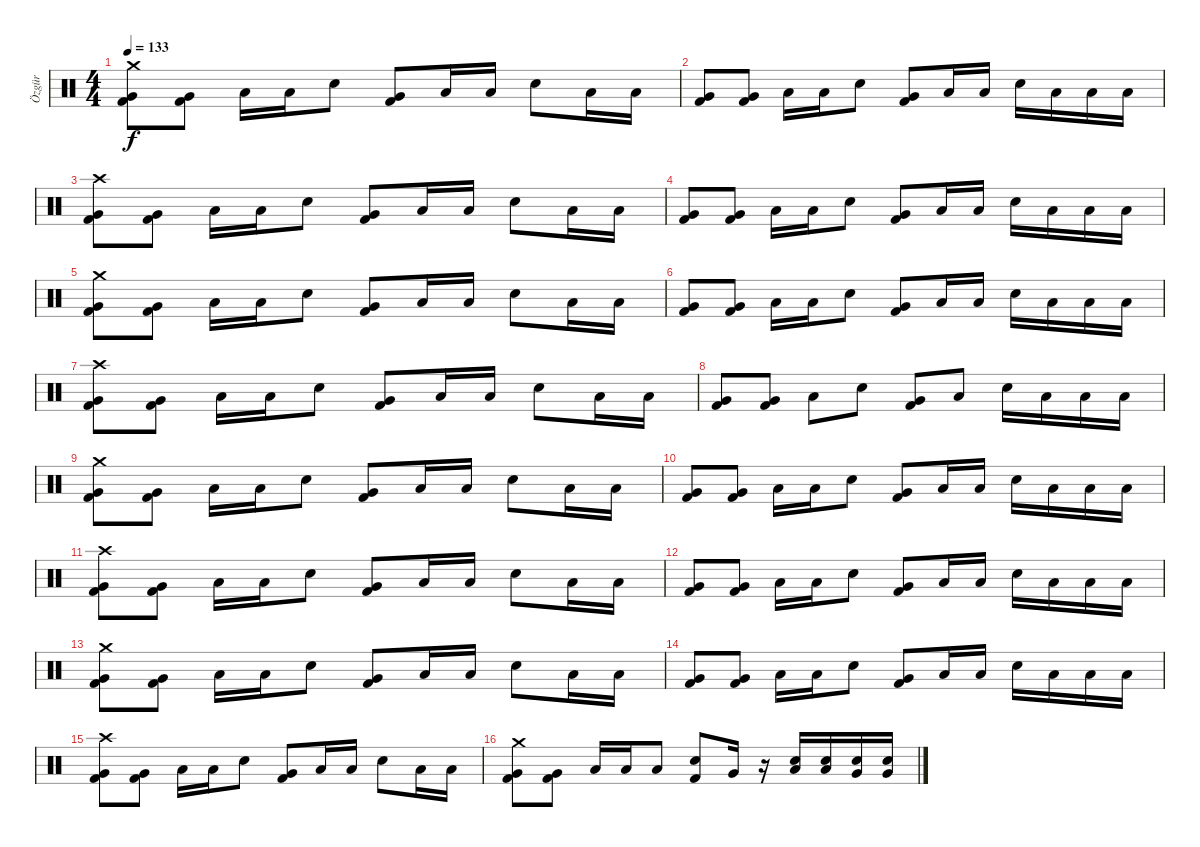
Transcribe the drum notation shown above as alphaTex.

\track ("Özgür" "Özgür") {instrument percussion}
\staff {score}
\articulation defaults
\ts (4 4)
\tempo 133
\clef neutral
\ks c
("Kick (hit) 2" "Very Low Tom (hit)" "Crash medium (hit)").8{dy f} ("Kick (hit) 2" "Very Low Tom (hit)").8 "Low Tom (hit)".16 "Low Tom (hit)".16 "Electric Snare (hit)".8 ("Kick (hit) 2" "Very Low Tom (hit)").8 "Low Tom (hit)".16 "Low Tom (hit)".16 "Electric Snare (hit)".8 "Low Tom (hit)".16 "Low Tom (hit)".16 |
("Kick (hit) 2" "Very Low Tom (hit)").8 ("Kick (hit) 2" "Very Low Tom (hit)").8 "Low Tom (hit)".16 "Low Tom (hit)".16 "Electric Snare (hit)".8 ("Kick (hit) 2" "Very Low Tom (hit)").8 "Low Tom (hit)".16 "Low Tom (hit)".16 "Electric Snare (hit)".16 "Low Tom (hit)".16 "Low Tom (hit)".16 "Low Tom (hit)".16 |
("Kick (hit) 2" "Very Low Tom (hit)" "Crash high (hit)").8 ("Kick (hit) 2" "Very Low Tom (hit)").8 "Low Tom (hit)".16 "Low Tom (hit)".16 "Electric Snare (hit)".8 ("Kick (hit) 2" "Very Low Tom (hit)").8 "Low Tom (hit)".16 "Low Tom (hit)".16 "Electric Snare (hit)".8 "Low Tom (hit)".16 "Low Tom (hit)".16 |
("Kick (hit) 2" "Very Low Tom (hit)").8 ("Kick (hit) 2" "Very Low Tom (hit)").8 "Low Tom (hit)".16 "Low Tom (hit)".16 "Electric Snare (hit)".8 ("Kick (hit) 2" "Very Low Tom (hit)").8 "Low Tom (hit)".16 "Low Tom (hit)".16 "Electric Snare (hit)".16 "Low Tom (hit)".16 "Low Tom (hit)".16 "Low Tom (hit)".16 |
("Kick (hit) 2" "Very Low Tom (hit)" "Crash medium (hit)").8 ("Kick (hit) 2" "Very Low Tom (hit)").8 "Low Tom (hit)".16 "Low Tom (hit)".16 "Electric Snare (hit)".8 ("Kick (hit) 2" "Very Low Tom (hit)").8 "Low Tom (hit)".16 "Low Tom (hit)".16 "Electric Snare (hit)".8 "Low Tom (hit)".16 "Low Tom (hit)".16 |
("Kick (hit) 2" "Very Low Tom (hit)").8 ("Kick (hit) 2" "Very Low Tom (hit)").8 "Low Tom (hit)".16 "Low Tom (hit)".16 "Electric Snare (hit)".8 ("Kick (hit) 2" "Very Low Tom (hit)").8 "Low Tom (hit)".16 "Low Tom (hit)".16 "Electric Snare (hit)".16 "Low Tom (hit)".16 "Low Tom (hit)".16 "Low Tom (hit)".16 |
("Kick (hit) 2" "Very Low Tom (hit)" "Crash high (hit)").8 ("Kick (hit) 2" "Very Low Tom (hit)").8 "Low Tom (hit)".16 "Low Tom (hit)".16 "Electric Snare (hit)".8 ("Kick (hit) 2" "Very Low Tom (hit)").8 "Low Tom (hit)".16 "Low Tom (hit)".16 "Electric Snare (hit)".8 "Low Tom (hit)".16 "Low Tom (hit)".16 |
("Kick (hit) 2" "Very Low Tom (hit)").8 ("Kick (hit) 2" "Very Low Tom (hit)").8 "Low Tom (hit)".8 "Electric Snare (hit)".8 ("Kick (hit) 2" "Very Low Tom (hit)").8 "Low Tom (hit)".8 "Electric Snare (hit)".16 "Low Tom (hit)".16 "Low Tom (hit)".16 "Low Tom (hit)".16 |
("Kick (hit) 2" "Very Low Tom (hit)" "Crash medium (hit)").8 ("Kick (hit) 2" "Very Low Tom (hit)").8 "Low Tom (hit)".16 "Low Tom (hit)".16 "Electric Snare (hit)".8 ("Kick (hit) 2" "Very Low Tom (hit)").8 "Low Tom (hit)".16 "Low Tom (hit)".16 "Electric Snare (hit)".8 "Low Tom (hit)".16 "Low Tom (hit)".16 |
("Kick (hit) 2" "Very Low Tom (hit)").8 ("Kick (hit) 2" "Very Low Tom (hit)").8 "Low Tom (hit)".16 "Low Tom (hit)".16 "Electric Snare (hit)".8 ("Kick (hit) 2" "Very Low Tom (hit)").8 "Low Tom (hit)".16 "Low Tom (hit)".16 "Electric Snare (hit)".16 "Low Tom (hit)".16 "Low Tom (hit)".16 "Low Tom (hit)".16 |
("Kick (hit) 2" "Very Low Tom (hit)" "Crash high (hit)").8 ("Kick (hit) 2" "Very Low Tom (hit)").8 "Low Tom (hit)".16 "Low Tom (hit)".16 "Electric Snare (hit)".8 ("Kick (hit) 2" "Very Low Tom (hit)").8 "Low Tom (hit)".16 "Low Tom (hit)".16 "Electric Snare (hit)".8 "Low Tom (hit)".16 "Low Tom (hit)".16 |
("Kick (hit) 2" "Very Low Tom (hit)").8 ("Kick (hit) 2" "Very Low Tom (hit)").8 "Low Tom (hit)".16 "Low Tom (hit)".16 "Electric Snare (hit)".8 ("Kick (hit) 2" "Very Low Tom (hit)").8 "Low Tom (hit)".16 "Low Tom (hit)".16 "Electric Snare (hit)".16 "Low Tom (hit)".16 "Low Tom (hit)".16 "Low Tom (hit)".16 |
("Kick (hit) 2" "Very Low Tom (hit)" "Crash medium (hit)").8 ("Kick (hit) 2" "Very Low Tom (hit)").8 "Low Tom (hit)".16 "Low Tom (hit)".16 "Electric Snare (hit)".8 ("Kick (hit) 2" "Very Low Tom (hit)").8 "Low Tom (hit)".16 "Low Tom (hit)".16 "Electric Snare (hit)".8 "Low Tom (hit)".16 "Low Tom (hit)".16 |
("Kick (hit) 2" "Very Low Tom (hit)").8 ("Kick (hit) 2" "Very Low Tom (hit)").8 "Low Tom (hit)".16 "Low Tom (hit)".16 "Electric Snare (hit)".8 ("Kick (hit) 2" "Very Low Tom (hit)").8 "Low Tom (hit)".16 "Low Tom (hit)".16 "Electric Snare (hit)".16 "Low Tom (hit)".16 "Low Tom (hit)".16 "Low Tom (hit)".16 |
("Kick (hit) 2" "Very Low Tom (hit)" "Crash high (hit)").8 ("Kick (hit) 2" "Very Low Tom (hit)").8 "Low Tom (hit)".16 "Low Tom (hit)".16 "Electric Snare (hit)".8 ("Kick (hit) 2" "Very Low Tom (hit)").8 "Low Tom (hit)".16 "Low Tom (hit)".16 "Electric Snare (hit)".8 "Low Tom (hit)".16 "Low Tom (hit)".16 |
("Kick (hit) 2" "Very Low Tom (hit)" "Crash medium (hit)").8 ("Kick (hit) 2" "Very Low Tom (hit)").8 "Low Tom (hit)".16 "Low Tom (hit)".16 "Low Tom (hit)".8 ("Kick (hit) 2" "Electric Snare (hit)").8 "Very Low Tom (hit)".16 r.16 ("Electric Snare (hit)" "Low Tom (hit)").16 ("Electric Snare (hit)" "Low Tom (hit)").16 ("Electric Snare (hit)" "Very Low Tom (hit)").16 ("Electric Snare (hit)" "Very Low Tom (hit)").16
